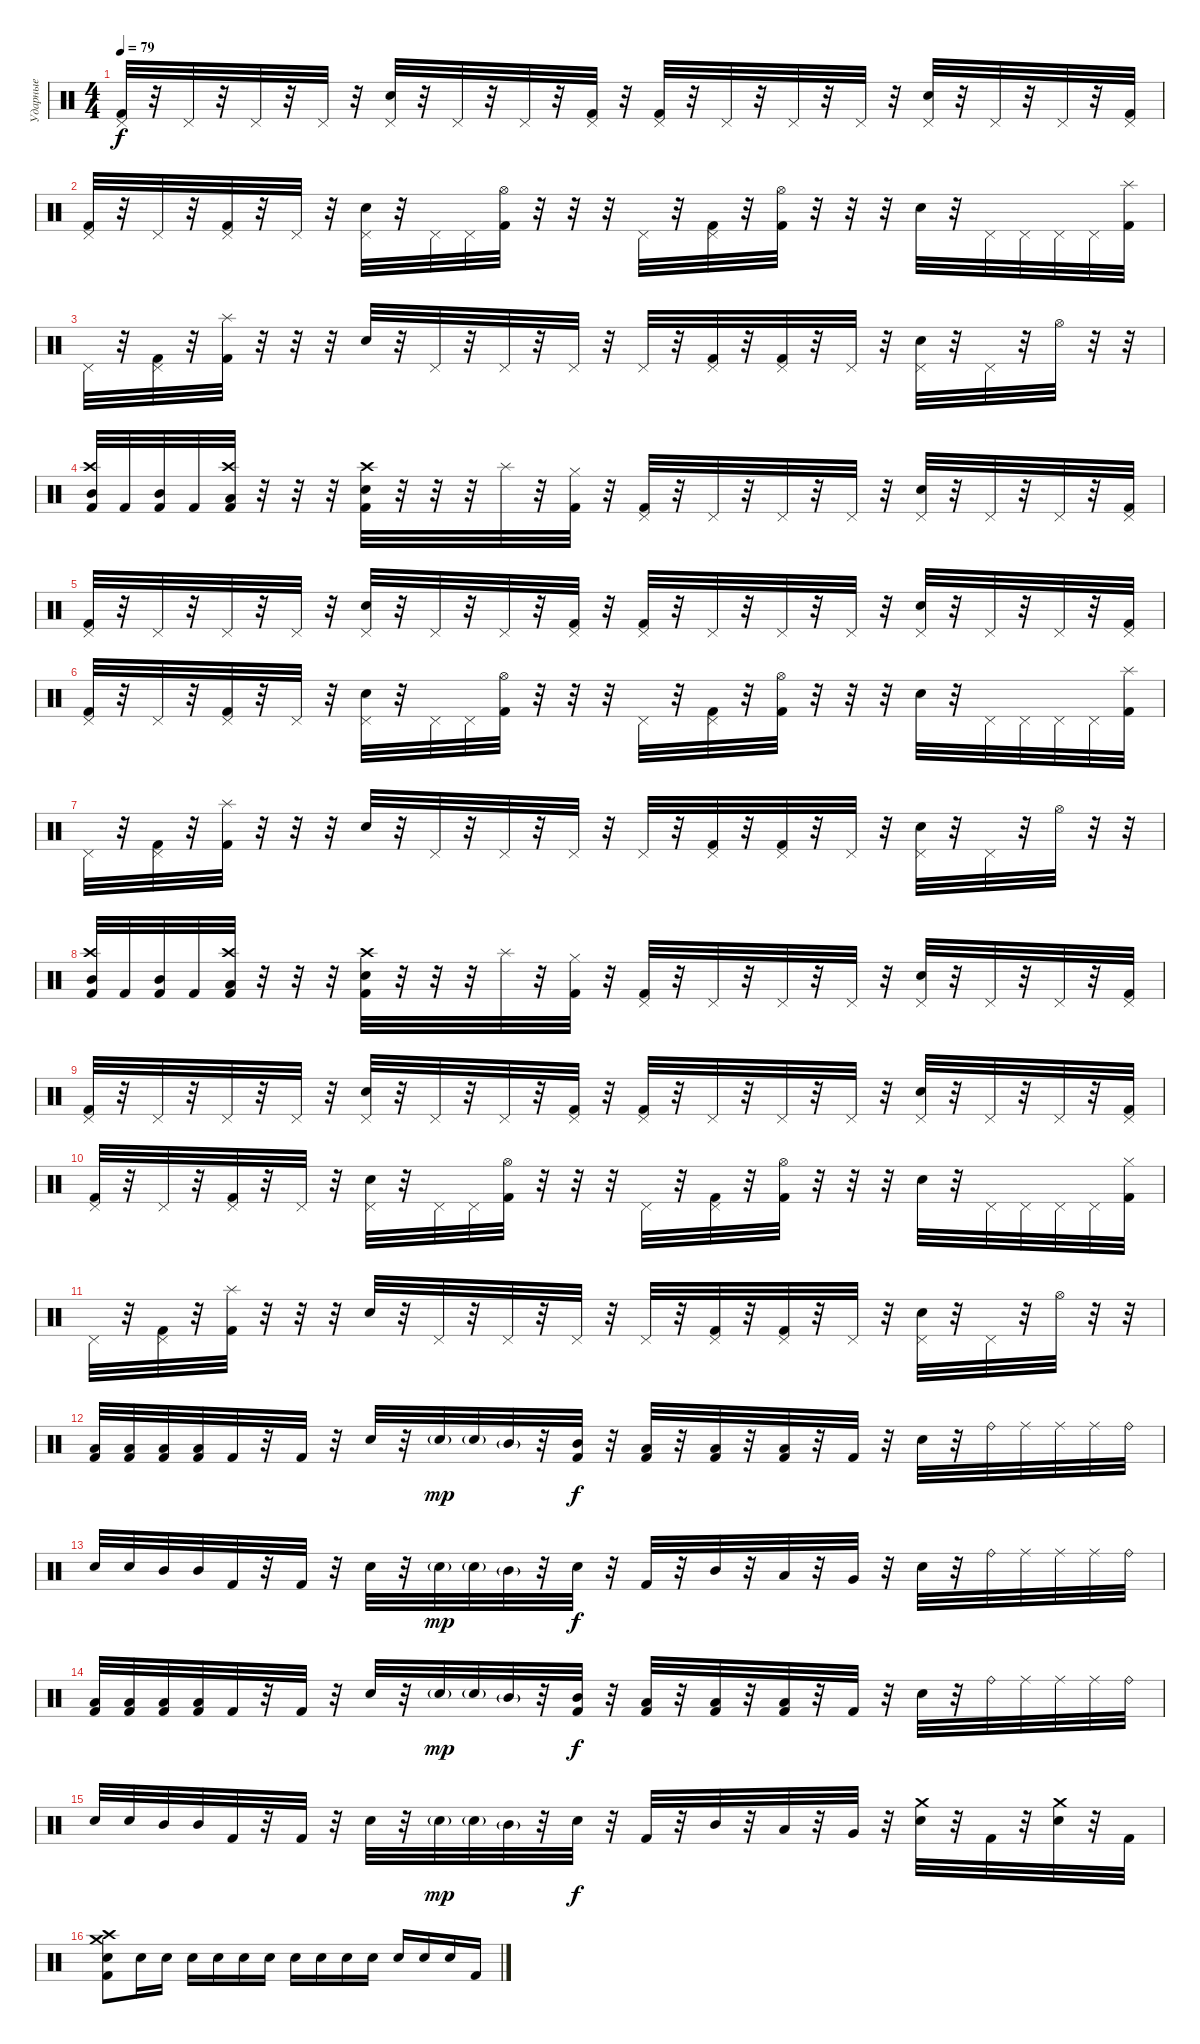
\track ("Ударные" "Ударные") {instrument percussion}
\staff {score}
\articulation defaults
\ts (4 4)
\tempo 79
\clef neutral
\ks c
("Pedal Hi-Hat (hit)" "Kick (hit) 2").32{dy f} r.32 "Pedal Hi-Hat (hit)".32 r.32 "Pedal Hi-Hat (hit)".32 r.32 "Pedal Hi-Hat (hit)".32 r.32 ("Pedal Hi-Hat (hit)" "Electric Snare (hit)").32 r.32 "Pedal Hi-Hat (hit)".32 r.32 "Pedal Hi-Hat (hit)".32 r.32 ("Pedal Hi-Hat (hit)" "Kick (hit) 2").32 r.32 ("Pedal Hi-Hat (hit)" "Kick (hit) 2").32 r.32 "Pedal Hi-Hat (hit)".32 r.32 "Pedal Hi-Hat (hit)".32 r.32 "Pedal Hi-Hat (hit)".32 r.32 ("Pedal Hi-Hat (hit)" "Electric Snare (hit)").32 r.32 "Pedal Hi-Hat (hit)".32 r.32 "Pedal Hi-Hat (hit)".32 r.32 ("Pedal Hi-Hat (hit)" "Kick (hit) 2").32 |
("Pedal Hi-Hat (hit)" "Kick (hit) 2").32 r.32 "Pedal Hi-Hat (hit)".32 r.32 ("Pedal Hi-Hat (hit)" "Kick (hit) 2").32 r.32 "Pedal Hi-Hat (hit)".32 r.32 ("Pedal Hi-Hat (hit)" "Electric Snare (hit)").32 r.32 "Pedal Hi-Hat (hit)".32 "Pedal Hi-Hat (hit)".32 ("Hi-Hat (open)" "Kick (hit) 2").32 r.32 r.32 r.32 "Pedal Hi-Hat (hit)".32 r.32 ("Pedal Hi-Hat (hit)" "Kick (hit) 2").32 r.32 ("Hi-Hat (open)" "Kick (hit) 2").32 r.32 r.32 r.32 "Electric Snare (hit)".32 r.32 "Pedal Hi-Hat (hit)".32 "Pedal Hi-Hat (hit)".32 "Pedal Hi-Hat (hit)".32 "Pedal Hi-Hat (hit)".32 ("Splash (hit)" "Kick (hit) 2").32 |
"Pedal Hi-Hat (hit)".32 r.32 ("Pedal Hi-Hat (hit)" "Kick (hit) 2").32 r.32 ("Splash (hit)" "Kick (hit) 2").32 r.32 r.32 r.32 "Electric Snare (hit)".32 r.32 "Pedal Hi-Hat (hit)".32 r.32 "Pedal Hi-Hat (hit)".32 r.32 "Pedal Hi-Hat (hit)".32 r.32 "Pedal Hi-Hat (hit)".32 r.32 ("Pedal Hi-Hat (hit)" "Kick (hit) 2").32 r.32 ("Pedal Hi-Hat (hit)" "Kick (hit) 2").32 r.32 "Pedal Hi-Hat (hit)".32 r.32 ("Pedal Hi-Hat (hit)" "Electric Snare (hit)").32 r.32 "Pedal Hi-Hat (hit)".32 r.32 "Hi-Hat (open)".32 r.32 r.32 |
("Crash high (hit)" "Mid Tom (hit)" "Kick (hit) 2").32 "Kick (hit) 2".32 ("Mid Tom (hit)" "Kick (hit) 2").32 "Kick (hit) 2".32 ("Crash high (hit)" "Low Tom (hit)" "Kick (hit) 2").32 r.32 r.32 r.32 ("Crash high (hit)" "Kick (hit) 2" "Electric Snare (hit)").32 r.32 r.32 r.32 "Splash (hit)".32 r.32 ("Hi-Hat (closed)" "Kick (hit) 2").32 r.32 ("Pedal Hi-Hat (hit)" "Kick (hit) 2").32 r.32 "Pedal Hi-Hat (hit)".32 r.32 "Pedal Hi-Hat (hit)".32 r.32 "Pedal Hi-Hat (hit)".32 r.32 ("Pedal Hi-Hat (hit)" "Electric Snare (hit)").32 r.32 "Pedal Hi-Hat (hit)".32 r.32 "Pedal Hi-Hat (hit)".32 r.32 ("Pedal Hi-Hat (hit)" "Kick (hit) 2").32 |
("Pedal Hi-Hat (hit)" "Kick (hit) 2").32 r.32 "Pedal Hi-Hat (hit)".32 r.32 "Pedal Hi-Hat (hit)".32 r.32 "Pedal Hi-Hat (hit)".32 r.32 ("Pedal Hi-Hat (hit)" "Electric Snare (hit)").32 r.32 "Pedal Hi-Hat (hit)".32 r.32 "Pedal Hi-Hat (hit)".32 r.32 ("Pedal Hi-Hat (hit)" "Kick (hit) 2").32 r.32 ("Pedal Hi-Hat (hit)" "Kick (hit) 2").32 r.32 "Pedal Hi-Hat (hit)".32 r.32 "Pedal Hi-Hat (hit)".32 r.32 "Pedal Hi-Hat (hit)".32 r.32 ("Pedal Hi-Hat (hit)" "Electric Snare (hit)").32 r.32 "Pedal Hi-Hat (hit)".32 r.32 "Pedal Hi-Hat (hit)".32 r.32 ("Pedal Hi-Hat (hit)" "Kick (hit) 2").32 |
("Pedal Hi-Hat (hit)" "Kick (hit) 2").32 r.32 "Pedal Hi-Hat (hit)".32 r.32 ("Pedal Hi-Hat (hit)" "Kick (hit) 2").32 r.32 "Pedal Hi-Hat (hit)".32 r.32 ("Pedal Hi-Hat (hit)" "Electric Snare (hit)").32 r.32 "Pedal Hi-Hat (hit)".32 "Pedal Hi-Hat (hit)".32 ("Hi-Hat (open)" "Kick (hit) 2").32 r.32 r.32 r.32 "Pedal Hi-Hat (hit)".32 r.32 ("Pedal Hi-Hat (hit)" "Kick (hit) 2").32 r.32 ("Hi-Hat (open)" "Kick (hit) 2").32 r.32 r.32 r.32 "Electric Snare (hit)".32 r.32 "Pedal Hi-Hat (hit)".32 "Pedal Hi-Hat (hit)".32 "Pedal Hi-Hat (hit)".32 "Pedal Hi-Hat (hit)".32 ("Splash (hit)" "Kick (hit) 2").32 |
"Pedal Hi-Hat (hit)".32 r.32 ("Pedal Hi-Hat (hit)" "Kick (hit) 2").32 r.32 ("Splash (hit)" "Kick (hit) 2").32 r.32 r.32 r.32 "Electric Snare (hit)".32 r.32 "Pedal Hi-Hat (hit)".32 r.32 "Pedal Hi-Hat (hit)".32 r.32 "Pedal Hi-Hat (hit)".32 r.32 "Pedal Hi-Hat (hit)".32 r.32 ("Pedal Hi-Hat (hit)" "Kick (hit) 2").32 r.32 ("Pedal Hi-Hat (hit)" "Kick (hit) 2").32 r.32 "Pedal Hi-Hat (hit)".32 r.32 ("Pedal Hi-Hat (hit)" "Electric Snare (hit)").32 r.32 "Pedal Hi-Hat (hit)".32 r.32 "Hi-Hat (open)".32 r.32 r.32 |
("Crash high (hit)" "Mid Tom (hit)" "Kick (hit) 2").32 "Kick (hit) 2".32 ("Mid Tom (hit)" "Kick (hit) 2").32 "Kick (hit) 2".32 ("Crash high (hit)" "Low Tom (hit)" "Kick (hit) 2").32 r.32 r.32 r.32 ("Crash high (hit)" "Kick (hit) 2" "Electric Snare (hit)").32 r.32 r.32 r.32 "Splash (hit)".32 r.32 ("Hi-Hat (closed)" "Kick (hit) 2").32 r.32 ("Pedal Hi-Hat (hit)" "Kick (hit) 2").32 r.32 "Pedal Hi-Hat (hit)".32 r.32 "Pedal Hi-Hat (hit)".32 r.32 "Pedal Hi-Hat (hit)".32 r.32 ("Pedal Hi-Hat (hit)" "Electric Snare (hit)").32 r.32 "Pedal Hi-Hat (hit)".32 r.32 "Pedal Hi-Hat (hit)".32 r.32 ("Pedal Hi-Hat (hit)" "Kick (hit) 2").32 |
("Pedal Hi-Hat (hit)" "Kick (hit) 2").32 r.32 "Pedal Hi-Hat (hit)".32 r.32 "Pedal Hi-Hat (hit)".32 r.32 "Pedal Hi-Hat (hit)".32 r.32 ("Pedal Hi-Hat (hit)" "Electric Snare (hit)").32 r.32 "Pedal Hi-Hat (hit)".32 r.32 "Pedal Hi-Hat (hit)".32 r.32 ("Pedal Hi-Hat (hit)" "Kick (hit) 2").32 r.32 ("Pedal Hi-Hat (hit)" "Kick (hit) 2").32 r.32 "Pedal Hi-Hat (hit)".32 r.32 "Pedal Hi-Hat (hit)".32 r.32 "Pedal Hi-Hat (hit)".32 r.32 ("Pedal Hi-Hat (hit)" "Electric Snare (hit)").32 r.32 "Pedal Hi-Hat (hit)".32 r.32 "Pedal Hi-Hat (hit)".32 r.32 ("Pedal Hi-Hat (hit)" "Kick (hit) 2").32 |
("Pedal Hi-Hat (hit)" "Kick (hit) 2").32 r.32 "Pedal Hi-Hat (hit)".32 r.32 ("Pedal Hi-Hat (hit)" "Kick (hit) 2").32 r.32 "Pedal Hi-Hat (hit)".32 r.32 ("Pedal Hi-Hat (hit)" "Electric Snare (hit)").32 r.32 "Pedal Hi-Hat (hit)".32 "Pedal Hi-Hat (hit)".32 ("Hi-Hat (open)" "Kick (hit) 2").32 r.32 r.32 r.32 "Pedal Hi-Hat (hit)".32 r.32 ("Pedal Hi-Hat (hit)" "Kick (hit) 2").32 r.32 ("Hi-Hat (open)" "Kick (hit) 2").32 r.32 r.32 r.32 "Electric Snare (hit)".32 r.32 "Pedal Hi-Hat (hit)".32 "Pedal Hi-Hat (hit)".32 "Pedal Hi-Hat (hit)".32 "Pedal Hi-Hat (hit)".32 ("Hi-Hat (closed)" "Kick (hit) 2").32 |
"Pedal Hi-Hat (hit)".32 r.32 ("Pedal Hi-Hat (hit)" "Kick (hit) 2").32 r.32 ("Splash (hit)" "Kick (hit) 2").32 r.32 r.32 r.32 "Electric Snare (hit)".32 r.32 "Pedal Hi-Hat (hit)".32 r.32 "Pedal Hi-Hat (hit)".32 r.32 "Pedal Hi-Hat (hit)".32 r.32 "Pedal Hi-Hat (hit)".32 r.32 ("Pedal Hi-Hat (hit)" "Kick (hit) 2").32 r.32 ("Pedal Hi-Hat (hit)" "Kick (hit) 2").32 r.32 "Pedal Hi-Hat (hit)".32 r.32 ("Pedal Hi-Hat (hit)" "Electric Snare (hit)").32 r.32 "Pedal Hi-Hat (hit)".32 r.32 "Hi-Hat (open)".32 r.32 r.32 |
("Low Tom (hit)" "Kick (hit) 2").32 ("Low Tom (hit)" "Kick (hit) 2").32 ("Low Tom (hit)" "Kick (hit) 2").32 ("Low Tom (hit)" "Kick (hit) 2").32 "Kick (hit) 2".32 r.32 "Kick (hit) 2".32 r.32 "Electric Snare (hit)".32 r.32 "Electric Snare (hit)"{g}.32{dy mp} "Electric Snare (hit)"{g}.32 "Mid Tom (hit)"{g}.32 r.32 ("Mid Tom (hit)" "Kick (hit) 2").32{dy f} r.32 ("Low Tom (hit)" "Kick (hit) 2").32 r.32 ("Low Tom (hit)" "Kick (hit) 2").32 r.32 ("Low Tom (hit)" "Kick (hit) 2").32 r.32 "Kick (hit) 2".32 r.32 "Electric Snare (hit)".32 r.32 "Ride (bell)".32 "Ride (middle)".32 "Ride (middle)".32 "Ride (middle)".32 "Ride (bell)".32 |
"Electric Snare (hit)".32 "Electric Snare (hit)".32 "Mid Tom (hit)".32 "Mid Tom (hit)".32 "Kick (hit) 2".32 r.32 "Kick (hit) 2".32 r.32 "Electric Snare (hit)".32 r.32 "Electric Snare (hit)"{g}.32{dy mp} "Electric Snare (hit)"{g}.32 "Mid Tom (hit)"{g}.32 r.32 "Electric Snare (hit)".32{dy f} r.32 "Kick (hit) 2".32 r.32 "Mid Tom (hit)".32 r.32 "Low Tom (hit)".32 r.32 "Very Low Tom (hit)".32 r.32 "Electric Snare (hit)".32 r.32 "Ride (bell)".32 "Ride (middle)".32 "Ride (middle)".32 "Ride (middle)".32 "Ride (bell)".32 |
("Low Tom (hit)" "Kick (hit) 2").32 ("Low Tom (hit)" "Kick (hit) 2").32 ("Low Tom (hit)" "Kick (hit) 2").32 ("Low Tom (hit)" "Kick (hit) 2").32 "Kick (hit) 2".32 r.32 "Kick (hit) 2".32 r.32 "Electric Snare (hit)".32 r.32 "Electric Snare (hit)"{g}.32{dy mp} "Electric Snare (hit)"{g}.32 "Mid Tom (hit)"{g}.32 r.32 ("Mid Tom (hit)" "Kick (hit) 2").32{dy f} r.32 ("Low Tom (hit)" "Kick (hit) 2").32 r.32 ("Low Tom (hit)" "Kick (hit) 2").32 r.32 ("Low Tom (hit)" "Kick (hit) 2").32 r.32 "Kick (hit) 2".32 r.32 "Electric Snare (hit)".32 r.32 "Ride (bell)".32 "Ride (middle)".32 "Ride (middle)".32 "Ride (middle)".32 "Ride (bell)".32 |
"Electric Snare (hit)".32 "Electric Snare (hit)".32 "Mid Tom (hit)".32 "Mid Tom (hit)".32 "Kick (hit) 2".32 r.32 "Kick (hit) 2".32 r.32 "Electric Snare (hit)".32 r.32 "Electric Snare (hit)"{g}.32{dy mp} "Electric Snare (hit)"{g}.32 "Mid Tom (hit)"{g}.32 r.32 "Electric Snare (hit)".32{dy f} r.32 "Kick (hit) 2".32 r.32 "Mid Tom (hit)".32 r.32 "Low Tom (hit)".32 r.32 "Very Low Tom (hit)".32 r.32 ("Crash medium (hit)" "Electric Snare (hit)").32 r.32 "Kick (hit) 2".32 r.32 ("Crash medium (hit)" "Electric Snare (hit)").32 r.32 "Kick (hit) 2".32 |
("Crash high (hit)" "Crash medium (hit)" "Kick (hit) 2" "Electric Snare (hit)").8 "Electric Snare (hit)".16{volume 7} "Electric Snare (hit)".16{volume 7} "Electric Snare (hit)".16{volume 8} "Electric Snare (hit)".16{volume 10} "Electric Snare (hit)".16{volume 12} "Electric Snare (hit)".16{volume 11} "Electric Snare (hit)".16{volume 14} "Electric Snare (hit)".16{volume 15} "Electric Snare (hit)".16{volume 16} "Electric Snare (hit)".16{volume 16} "Electric Snare (hit)".16{volume 16} "Electric Snare (hit)".16{volume 16} "Electric Snare (hit)".16 "Kick (hit) 2".16
